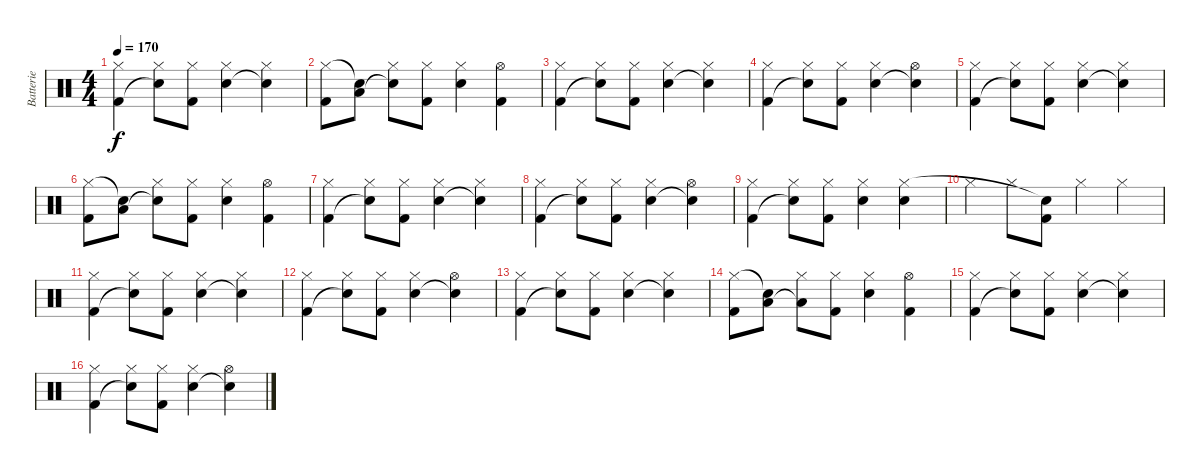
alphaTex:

\track ("Batterie" "Batterie") {instrument percussion}
\staff {score}
\articulation defaults
\ts (4 4)
\tempo 170
\clef neutral
\ks c
("Kick (hit) 2" "Hi-Hat (closed)").4{dy f} ("Snare (hit)"{t} "Hi-Hat (closed)").8 ("Kick (hit) 2" "Hi-Hat (closed)").8 ("Snare (hit) 2" "Hi-Hat (closed)").4 ("Snare (hit)"{t} "Hi-Hat (closed)").4 |
("Kick (hit) 2" "Hi-Hat (closed)").8 ("Low Tom (hit)" "Snare (hit)"{t}).8 ("Snare (hit)"{t} "Hi-Hat (closed)").8 ("Kick (hit) 2" "Hi-Hat (closed)").8 ("Snare (hit) 2" "Hi-Hat (closed)").4 ("Kick (hit) 2" "Hi-Hat (open)").4 |
("Kick (hit) 2" "Hi-Hat (closed)").4 ("Snare (hit)"{t} "Hi-Hat (closed)").8 ("Kick (hit) 2" "Hi-Hat (closed)").8 ("Snare (hit) 2" "Hi-Hat (closed)").4 ("Snare (hit)"{t} "Hi-Hat (closed)").4 |
("Kick (hit) 2" "Hi-Hat (closed)").4 ("Snare (hit)"{t} "Hi-Hat (closed)").8 ("Kick (hit) 2" "Hi-Hat (closed)").8 ("Snare (hit) 2" "Hi-Hat (closed)").4 ("Snare (hit)"{t} "Hi-Hat (open)").4 |
("Kick (hit) 2" "Hi-Hat (closed)").4 ("Snare (hit)"{t} "Hi-Hat (closed)").8 ("Kick (hit) 2" "Hi-Hat (closed)").8 ("Snare (hit) 2" "Hi-Hat (closed)").4 ("Snare (hit)"{t} "Hi-Hat (closed)").4 |
("Kick (hit) 2" "Hi-Hat (closed)").8 ("Low Tom (hit)" "Snare (hit)"{t}).8 ("Snare (hit)"{t} "Hi-Hat (closed)").8 ("Kick (hit) 2" "Hi-Hat (closed)").8 ("Snare (hit) 2" "Hi-Hat (closed)").4 ("Kick (hit) 2" "Hi-Hat (open)").4 |
("Kick (hit) 2" "Hi-Hat (closed)").4 ("Snare (hit)"{t} "Hi-Hat (closed)").8 ("Kick (hit) 2" "Hi-Hat (closed)").8 ("Snare (hit) 2" "Hi-Hat (closed)").4 ("Snare (hit)"{t} "Hi-Hat (closed)").4 |
("Kick (hit) 2" "Hi-Hat (closed)").4 ("Snare (hit)"{t} "Hi-Hat (closed)").8 ("Kick (hit) 2" "Hi-Hat (closed)").8 ("Snare (hit) 2" "Hi-Hat (closed)").4 ("Snare (hit)"{t} "Hi-Hat (open)").4 |
("Kick (hit) 2" "Hi-Hat (closed)").4 ("Snare (hit)"{t} "Hi-Hat (closed)").8 ("Kick (hit) 2" "Hi-Hat (closed)").8 ("Snare (hit) 2" "Hi-Hat (closed)").4 ("Snare (hit) 2" "Hi-Hat (closed)").4 |
"Hi-Hat (closed)".4 "Hi-Hat (closed)".8 ("Kick (hit) 2" "Snare (hit)"{t}).8 "Hi-Hat (closed)".4 "Hi-Hat (closed)".4 |
("Kick (hit) 2" "Hi-Hat (closed)").4 ("Snare (hit)"{t} "Hi-Hat (closed)").8 ("Kick (hit) 2" "Hi-Hat (closed)").8 ("Snare (hit) 2" "Hi-Hat (closed)").4 ("Snare (hit)"{t} "Hi-Hat (closed)").4 |
("Kick (hit) 2" "Hi-Hat (closed)").4 ("Snare (hit)"{t} "Hi-Hat (closed)").8 ("Kick (hit) 2" "Hi-Hat (closed)").8 ("Snare (hit) 2" "Hi-Hat (closed)").4 ("Snare (hit)"{t} "Hi-Hat (open)").4 |
("Kick (hit) 2" "Hi-Hat (closed)").4 ("Snare (hit)"{t} "Hi-Hat (closed)").8 ("Kick (hit) 2" "Hi-Hat (closed)").8 ("Snare (hit) 2" "Hi-Hat (closed)").4 ("Snare (hit)"{t} "Hi-Hat (closed)").4 |
("Kick (hit) 2" "Hi-Hat (closed)").8 ("Low Tom (hit)" "Snare (hit)"{t}).8 ("Low Tom (hit)"{t} "Hi-Hat (closed)").8 ("Kick (hit) 2" "Hi-Hat (closed)").8 ("Snare (hit) 2" "Hi-Hat (closed)").4 ("Kick (hit) 2" "Hi-Hat (open)").4 |
("Kick (hit) 2" "Hi-Hat (closed)").4 ("Snare (hit)"{t} "Hi-Hat (closed)").8 ("Kick (hit) 2" "Hi-Hat (closed)").8 ("Snare (hit) 2" "Hi-Hat (closed)").4 ("Snare (hit)"{t} "Hi-Hat (closed)").4 |
("Kick (hit) 2" "Hi-Hat (closed)").4 ("Snare (hit)"{t} "Hi-Hat (closed)").8 ("Kick (hit) 2" "Hi-Hat (closed)").8 ("Snare (hit) 2" "Hi-Hat (closed)").4 ("Snare (hit)"{t} "Hi-Hat (open)").4
